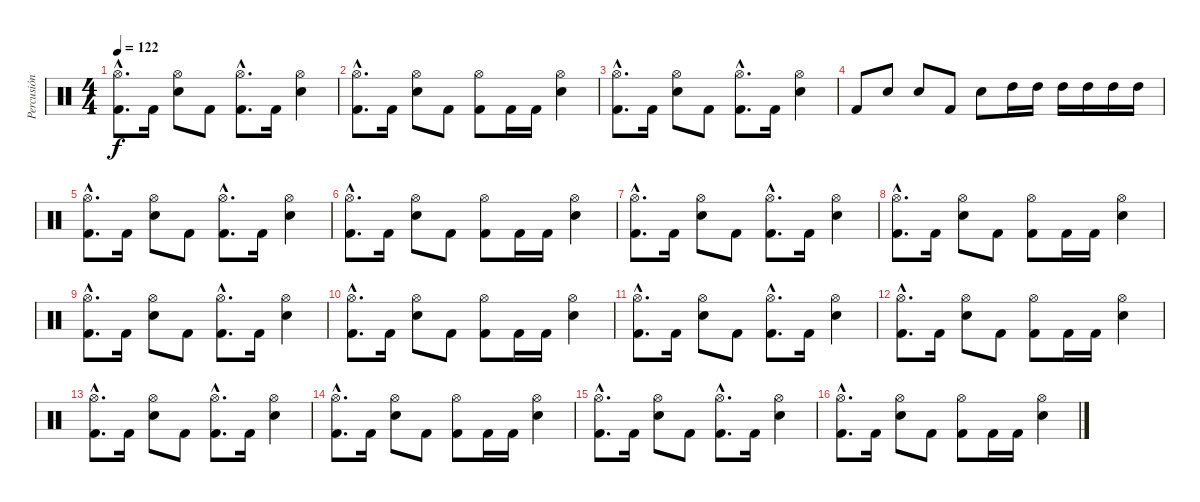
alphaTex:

\track ("Percusión" "Percusión") {instrument percussion}
\staff {score}
\articulation defaults
\ts (4 4)
\tempo 122
\clef neutral
\ks c
("Hi-Hat (open)"{hac} "Kick (hit) 2"{hac}).8{d dy f} "Kick (hit) 2".16 ("Hi-Hat (open)" "Snare (hit) 2").8 "Kick (hit) 2".8 ("Hi-Hat (open)"{hac} "Kick (hit) 2"{hac}).8{d} "Kick (hit) 2".16 ("Hi-Hat (open)" "Snare (hit) 2").4 |
("Hi-Hat (open)"{hac} "Kick (hit) 2"{hac}).8{d} "Kick (hit) 2".16 ("Hi-Hat (open)" "Snare (hit) 2").8 "Kick (hit) 2".8 ("Hi-Hat (open)" "Kick (hit) 2").8 "Kick (hit) 2".16 "Kick (hit) 2".16 ("Hi-Hat (open)" "Snare (hit) 2").4 |
("Hi-Hat (open)"{hac} "Kick (hit) 2"{hac}).8{d} "Kick (hit) 2".16 ("Hi-Hat (open)" "Snare (hit) 2").8 "Kick (hit) 2".8 ("Hi-Hat (open)"{hac} "Kick (hit) 2"{hac}).8{d} "Kick (hit) 2".16 ("Hi-Hat (open)" "Snare (hit) 2").4 |
"Kick (hit) 2".8 "Snare (hit) 2".8 "Snare (hit) 2".8 "Kick (hit) 2".8 "Snare (hit) 2".8 "High Tom (hit)".16 "High Tom (hit)".16 "High Tom (hit)".16 "High Tom (hit)".16 "High Tom (hit)".16 "High Tom (hit)".16 |
("Hi-Hat (open)"{hac} "Kick (hit) 2"{hac}).8{d} "Kick (hit) 2".16 ("Hi-Hat (open)" "Snare (hit) 2").8 "Kick (hit) 2".8 ("Hi-Hat (open)"{hac} "Kick (hit) 2"{hac}).8{d} "Kick (hit) 2".16 ("Hi-Hat (open)" "Snare (hit) 2").4 |
("Hi-Hat (open)"{hac} "Kick (hit) 2"{hac}).8{d} "Kick (hit) 2".16 ("Hi-Hat (open)" "Snare (hit) 2").8 "Kick (hit) 2".8 ("Hi-Hat (open)" "Kick (hit) 2").8 "Kick (hit) 2".16 "Kick (hit) 2".16 ("Hi-Hat (open)" "Snare (hit) 2").4 |
("Hi-Hat (open)"{hac} "Kick (hit) 2"{hac}).8{d} "Kick (hit) 2".16 ("Hi-Hat (open)" "Snare (hit) 2").8 "Kick (hit) 2".8 ("Hi-Hat (open)"{hac} "Kick (hit) 2"{hac}).8{d} "Kick (hit) 2".16 ("Hi-Hat (open)" "Snare (hit) 2").4 |
("Hi-Hat (open)"{hac} "Kick (hit) 2"{hac}).8{d} "Kick (hit) 2".16 ("Hi-Hat (open)" "Snare (hit) 2").8 "Kick (hit) 2".8 ("Hi-Hat (open)" "Kick (hit) 2").8 "Kick (hit) 2".16 "Kick (hit) 2".16 ("Hi-Hat (open)" "Snare (hit) 2").4 |
("Hi-Hat (open)"{hac} "Kick (hit) 2"{hac}).8{d} "Kick (hit) 2".16 ("Hi-Hat (open)" "Snare (hit) 2").8 "Kick (hit) 2".8 ("Hi-Hat (open)"{hac} "Kick (hit) 2"{hac}).8{d} "Kick (hit) 2".16 ("Hi-Hat (open)" "Snare (hit) 2").4 |
("Hi-Hat (open)"{hac} "Kick (hit) 2"{hac}).8{d} "Kick (hit) 2".16 ("Hi-Hat (open)" "Snare (hit) 2").8 "Kick (hit) 2".8 ("Hi-Hat (open)" "Kick (hit) 2").8 "Kick (hit) 2".16 "Kick (hit) 2".16 ("Hi-Hat (open)" "Snare (hit) 2").4 |
("Hi-Hat (open)"{hac} "Kick (hit) 2"{hac}).8{d} "Kick (hit) 2".16 ("Hi-Hat (open)" "Snare (hit) 2").8 "Kick (hit) 2".8 ("Hi-Hat (open)"{hac} "Kick (hit) 2"{hac}).8{d} "Kick (hit) 2".16 ("Hi-Hat (open)" "Snare (hit) 2").4 |
("Hi-Hat (open)"{hac} "Kick (hit) 2"{hac}).8{d} "Kick (hit) 2".16 ("Hi-Hat (open)" "Snare (hit) 2").8 "Kick (hit) 2".8 ("Hi-Hat (open)" "Kick (hit) 2").8 "Kick (hit) 2".16 "Kick (hit) 2".16 ("Hi-Hat (open)" "Snare (hit) 2").4 |
("Hi-Hat (open)"{hac} "Kick (hit) 2"{hac}).8{d} "Kick (hit) 2".16 ("Hi-Hat (open)" "Snare (hit) 2").8 "Kick (hit) 2".8 ("Hi-Hat (open)"{hac} "Kick (hit) 2"{hac}).8{d} "Kick (hit) 2".16 ("Hi-Hat (open)" "Snare (hit) 2").4 |
("Hi-Hat (open)"{hac} "Kick (hit) 2"{hac}).8{d} "Kick (hit) 2".16 ("Hi-Hat (open)" "Snare (hit) 2").8 "Kick (hit) 2".8 ("Hi-Hat (open)" "Kick (hit) 2").8 "Kick (hit) 2".16 "Kick (hit) 2".16 ("Hi-Hat (open)" "Snare (hit) 2").4 |
("Hi-Hat (open)"{hac} "Kick (hit) 2"{hac}).8{d} "Kick (hit) 2".16 ("Hi-Hat (open)" "Snare (hit) 2").8 "Kick (hit) 2".8 ("Hi-Hat (open)"{hac} "Kick (hit) 2"{hac}).8{d} "Kick (hit) 2".16 ("Hi-Hat (open)" "Snare (hit) 2").4 |
("Hi-Hat (open)"{hac} "Kick (hit) 2"{hac}).8{d} "Kick (hit) 2".16 ("Hi-Hat (open)" "Snare (hit) 2").8 "Kick (hit) 2".8 ("Hi-Hat (open)" "Kick (hit) 2").8 "Kick (hit) 2".16 "Kick (hit) 2".16 ("Hi-Hat (open)" "Snare (hit) 2").4
